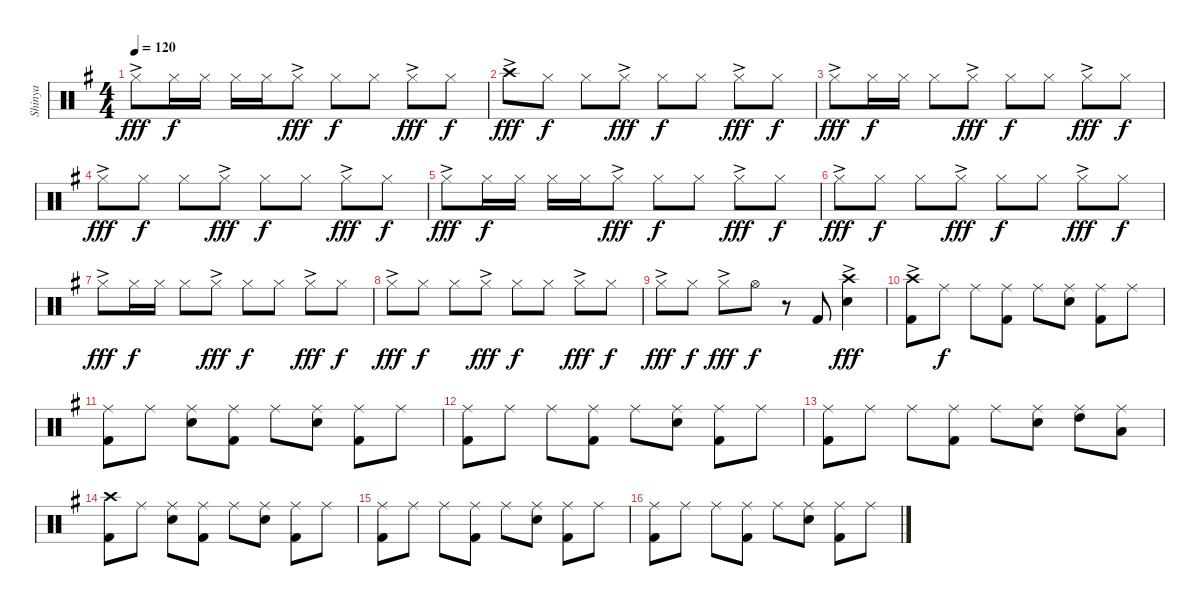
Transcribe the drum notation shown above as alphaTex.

\track ("Shinya" "Shinya") {instrument percussion}
\staff {score}
\articulation defaults
\ts (4 4)
\tempo 120
\clef neutral
\ks g "Hi-Hat (closed)"{ac}.8{dy fff} "Hi-Hat (closed)".16{dy f} "Hi-Hat (closed)".16 "Hi-Hat (closed)".16 "Hi-Hat (closed)".16 "Hi-Hat (closed)"{ac}.8{dy fff} "Hi-Hat (closed)".8{dy f} "Hi-Hat (closed)".8 "Hi-Hat (closed)"{ac}.8{dy fff} "Hi-Hat (closed)".8{dy f}
|
"Crash high (hit)"{ac}.8{dy fff} "Hi-Hat (closed)".8{dy f} "Hi-Hat (closed)".8 "Hi-Hat (closed)"{ac}.8{dy fff} "Hi-Hat (closed)".8{dy f} "Hi-Hat (closed)".8 "Hi-Hat (closed)"{ac}.8{dy fff} "Hi-Hat (closed)".8{dy f} |
"Hi-Hat (closed)"{ac}.8{dy fff} "Hi-Hat (closed)".16{dy f} "Hi-Hat (closed)".16 "Hi-Hat (closed)".8 "Hi-Hat (closed)"{ac}.8{dy fff} "Hi-Hat (closed)".8{dy f} "Hi-Hat (closed)".8 "Hi-Hat (closed)"{ac}.8{dy fff} "Hi-Hat (closed)".8{dy f} |
"Hi-Hat (closed)"{ac}.8{dy fff} "Hi-Hat (closed)".8{dy f} "Hi-Hat (closed)".8 "Hi-Hat (closed)"{ac}.8{dy fff} "Hi-Hat (closed)".8{dy f} "Hi-Hat (closed)".8 "Hi-Hat (closed)"{ac}.8{dy fff} "Hi-Hat (closed)".8{dy f} |
"Hi-Hat (closed)"{ac}.8{dy fff} "Hi-Hat (closed)".16{dy f} "Hi-Hat (closed)".16 "Hi-Hat (closed)".16 "Hi-Hat (closed)".16 "Hi-Hat (closed)"{ac}.8{dy fff} "Hi-Hat (closed)".8{dy f} "Hi-Hat (closed)".8 "Hi-Hat (closed)"{ac}.8{dy fff} "Hi-Hat (closed)".8{dy f} |
"Hi-Hat (closed)"{ac}.8{dy fff} "Hi-Hat (closed)".8{dy f} "Hi-Hat (closed)".8 "Hi-Hat (closed)"{ac}.8{dy fff} "Hi-Hat (closed)".8{dy f} "Hi-Hat (closed)".8 "Hi-Hat (closed)"{ac}.8{dy fff} "Hi-Hat (closed)".8{dy f} |
"Hi-Hat (closed)"{ac}.8{dy fff} "Hi-Hat (closed)".16{dy f} "Hi-Hat (closed)".16 "Hi-Hat (closed)".8 "Hi-Hat (closed)"{ac}.8{dy fff} "Hi-Hat (closed)".8{dy f} "Hi-Hat (closed)".8 "Hi-Hat (closed)"{ac}.8{dy fff} "Hi-Hat (closed)".8{dy f} |
"Hi-Hat (closed)"{ac}.8{dy fff} "Hi-Hat (closed)".8{dy f} "Hi-Hat (closed)".8 "Hi-Hat (closed)"{ac}.8{dy fff} "Hi-Hat (closed)".8{dy f} "Hi-Hat (closed)".8 "Hi-Hat (closed)"{ac}.8{dy fff} "Hi-Hat (closed)".8{dy f} |
"Hi-Hat (closed)"{ac}.8{dy fff} "Hi-Hat (closed)".8{dy f} "Hi-Hat (closed)"{ac}.8{dy fff} "Hi-Hat (open)".8{dy f} r.8 "Kick (hit) 2".8 ("Crash high (hit)"{ac} "Snare (hit) 2").4{dy fff} |
("Crash high (hit)"{ac} "Kick (hit) 2").8 "Ride (middle)".8{dy f} "Ride (middle)".8 ("Ride (middle)" "Kick (hit) 2").8 "Ride (middle)".8 ("Ride (middle)" "Snare (hit) 2").8 ("Ride (middle)" "Kick (hit) 2").8 "Ride (middle)".8 |
("Ride (middle)" "Kick (hit) 2").8 "Ride (middle)".8 ("Ride (middle)" "Snare (hit) 2").8 ("Ride (middle)" "Kick (hit) 2").8 "Ride (middle)".8 ("Ride (middle)" "Snare (hit) 2").8 ("Ride (middle)" "Kick (hit) 2").8 "Ride (middle)".8 |
("Ride (middle)" "Kick (hit) 2").8 "Ride (middle)".8 "Ride (middle)".8 ("Ride (middle)" "Kick (hit) 2").8 "Ride (middle)".8 ("Ride (middle)" "Snare (hit) 2").8 ("Ride (middle)" "Kick (hit) 2").8 "Ride (middle)".8 |
("Ride (middle)" "Kick (hit) 2").8 "Ride (middle)".8 "Ride (middle)".8 ("Ride (middle)" "Kick (hit) 2").8 "Ride (middle)".8 ("Ride (middle)" "Snare (hit) 2").8 ("Ride (middle)" "High Tom (hit)").8 ("Ride (middle)" "Low Tom (hit)").8 |
("Crash high (hit)" "Kick (hit) 2").8 "Ride (middle)".8 ("Ride (middle)" "Snare (hit) 2").8 ("Ride (middle)" "Kick (hit) 2").8 "Ride (middle)".8 ("Ride (middle)" "Snare (hit) 2").8 ("Ride (middle)" "Kick (hit) 2").8 "Ride (middle)".8 |
("Ride (middle)" "Kick (hit) 2").8 "Ride (middle)".8 "Ride (middle)".8 ("Ride (middle)" "Kick (hit) 2").8 "Ride (middle)".8 ("Ride (middle)" "Snare (hit) 2").8 ("Ride (middle)" "Kick (hit) 2").8 "Ride (middle)".8 |
("Ride (middle)" "Kick (hit) 2").8 "Ride (middle)".8 "Ride (middle)".8 ("Ride (middle)" "Kick (hit) 2").8 "Ride (middle)".8 ("Ride (middle)" "Snare (hit) 2").8 ("Ride (middle)" "Kick (hit) 2").8 "Ride (middle)".8
